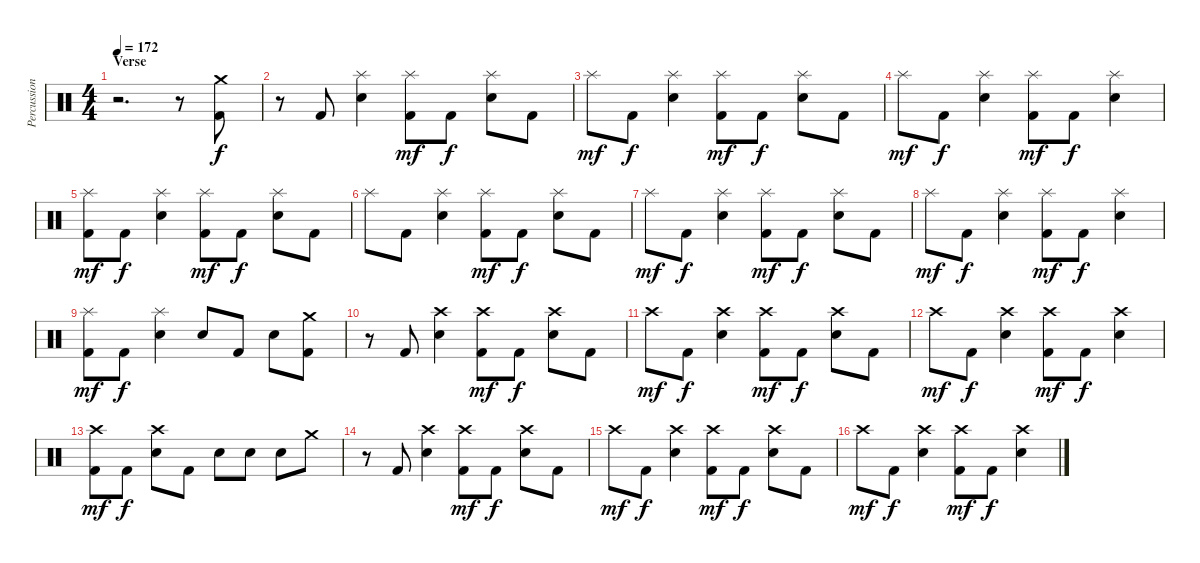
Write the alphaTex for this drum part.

\track ("Percussion" "Percussion") {instrument percussion}
\staff {score}
\articulation defaults
\ts (4 4)
\section ("" "Verse")
\tempo 172
\clef neutral
\ks c
r.2{d dy f} r.8 ("Crash medium (hit)" "Kick (hit) 2").8 |
r.8 "Kick (hit) 2".8 ("Splash (hit)" "Electric Snare (hit)").4 ("Splash (hit)" "Kick (hit) 2").8{dy mf} "Kick (hit) 2".8{dy f} ("Splash (hit)" "Electric Snare (hit)").8 "Kick (hit) 2".8 |
"Splash (hit)".8{dy mf} "Kick (hit) 2".8{dy f} ("Splash (hit)" "Electric Snare (hit)").4 ("Splash (hit)" "Kick (hit) 2").8{dy mf} "Kick (hit) 2".8{dy f} ("Splash (hit)" "Electric Snare (hit)").8 "Kick (hit) 2".8 |
"Splash (hit)".8{dy mf} "Kick (hit) 2".8{dy f} ("Splash (hit)" "Electric Snare (hit)").4 ("Splash (hit)" "Kick (hit) 2").8{dy mf} "Kick (hit) 2".8{dy f} ("Splash (hit)" "Electric Snare (hit)").4 |
("Splash (hit)" "Kick (hit) 2").8{dy mf} "Kick (hit) 2".8{dy f} ("Splash (hit)" "Electric Snare (hit)").4 ("Splash (hit)" "Kick (hit) 2").8{dy mf} "Kick (hit) 2".8{dy f} ("Splash (hit)" "Electric Snare (hit)").8 "Kick (hit) 2".8 |
"Splash (hit)".8 "Kick (hit) 2".8 ("Splash (hit)" "Electric Snare (hit)").4 ("Splash (hit)" "Kick (hit) 2").8{dy mf} "Kick (hit) 2".8{dy f} ("Splash (hit)" "Electric Snare (hit)").8 "Kick (hit) 2".8 |
"Splash (hit)".8{dy mf} "Kick (hit) 2".8{dy f} ("Splash (hit)" "Electric Snare (hit)").4 ("Splash (hit)" "Kick (hit) 2").8{dy mf} "Kick (hit) 2".8{dy f} ("Splash (hit)" "Electric Snare (hit)").8 "Kick (hit) 2".8 |
"Splash (hit)".8{dy mf} "Kick (hit) 2".8{dy f} ("Splash (hit)" "Electric Snare (hit)").4 ("Splash (hit)" "Kick (hit) 2").8{dy mf} "Kick (hit) 2".8{dy f} ("Splash (hit)" "Electric Snare (hit)").4 |
("Splash (hit)" "Kick (hit) 2").8{dy mf} "Kick (hit) 2".8{dy f} ("Splash (hit)" "Electric Snare (hit)").4 "Electric Snare (hit)".8 "Kick (hit) 2".8 "Electric Snare (hit)".8 ("Crash medium (hit)" "Kick (hit) 2").8 |
r.8 "Kick (hit) 2".8 ("Crash high (hit)" "Electric Snare (hit)").4 ("Crash high (hit)" "Kick (hit) 2").8{dy mf} "Kick (hit) 2".8{dy f} ("Crash high (hit)" "Electric Snare (hit)").8 "Kick (hit) 2".8 |
"Crash high (hit)".8{dy mf} "Kick (hit) 2".8{dy f} ("Crash high (hit)" "Electric Snare (hit)").4 ("Crash high (hit)" "Kick (hit) 2").8{dy mf} "Kick (hit) 2".8{dy f} ("Crash high (hit)" "Electric Snare (hit)").8 "Kick (hit) 2".8 |
"Crash high (hit)".8{dy mf} "Kick (hit) 2".8{dy f} ("Crash high (hit)" "Electric Snare (hit)").4 ("Crash high (hit)" "Kick (hit) 2").8{dy mf} "Kick (hit) 2".8{dy f} ("Crash high (hit)" "Electric Snare (hit)").4 |
("Crash high (hit)" "Kick (hit) 2").8{dy mf} "Kick (hit) 2".8{dy f} ("Crash high (hit)" "Electric Snare (hit)").8 "Kick (hit) 2".8 "Electric Snare (hit)".8 "Electric Snare (hit)".8 "Electric Snare (hit)".8 "Crash medium (hit)".8 |
r.8 "Kick (hit) 2".8 ("Crash high (hit)" "Electric Snare (hit)").4 ("Crash high (hit)" "Kick (hit) 2").8{dy mf} "Kick (hit) 2".8{dy f} ("Crash high (hit)" "Electric Snare (hit)").8 "Kick (hit) 2".8 |
"Crash high (hit)".8{dy mf} "Kick (hit) 2".8{dy f} ("Crash high (hit)" "Electric Snare (hit)").4 ("Crash high (hit)" "Kick (hit) 2").8{dy mf} "Kick (hit) 2".8{dy f} ("Crash high (hit)" "Electric Snare (hit)").8 "Kick (hit) 2".8 |
"Crash high (hit)".8{dy mf} "Kick (hit) 2".8{dy f} ("Crash high (hit)" "Electric Snare (hit)").4 ("Crash high (hit)" "Kick (hit) 2").8{dy mf} "Kick (hit) 2".8{dy f} ("Crash high (hit)" "Electric Snare (hit)").4
